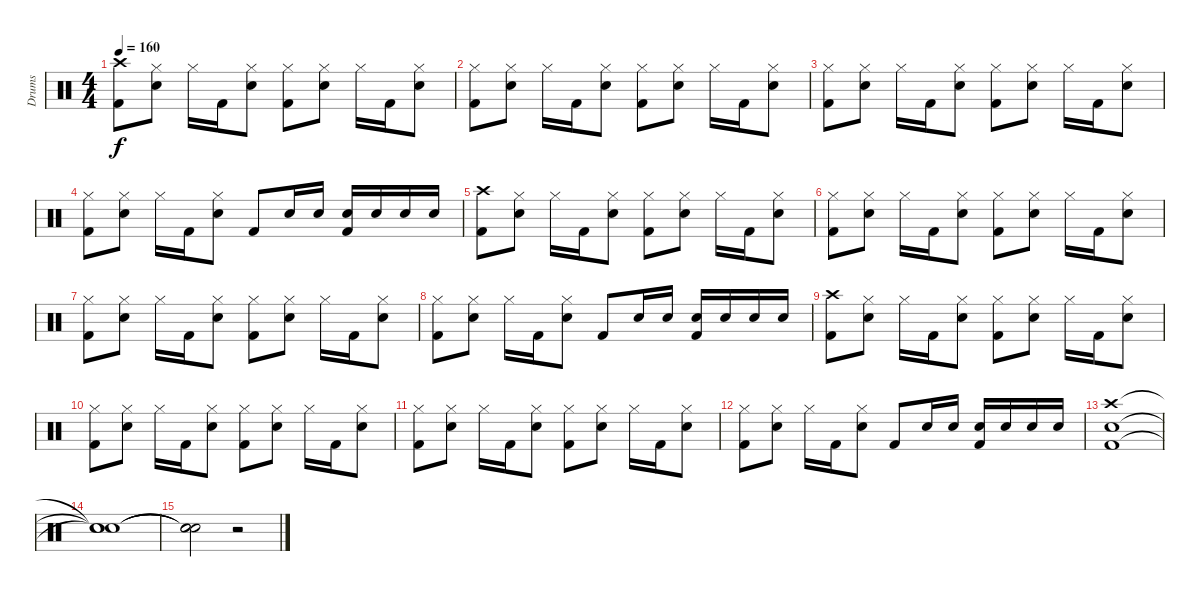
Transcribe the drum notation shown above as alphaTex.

\track ("Drums" "Drums") {instrument percussion}
\staff {score}
\articulation defaults
\ts (4 4)
\tempo 160
\clef neutral
\ks c
("Crash high (hit)" "Kick (hit) 2").8{dy f} ("Hi-Hat (closed)" "Snare (hit) 2").8 "Hi-Hat (closed)".16 "Kick (hit) 2".16 ("Hi-Hat (closed)" "Snare (hit) 2").8 ("Hi-Hat (closed)" "Kick (hit) 2").8 ("Hi-Hat (closed)" "Snare (hit) 2").8 "Hi-Hat (closed)".16 "Kick (hit) 2".16 ("Hi-Hat (closed)" "Snare (hit) 2").8 |
("Hi-Hat (closed)" "Kick (hit) 2").8 ("Hi-Hat (closed)" "Snare (hit) 2").8 "Hi-Hat (closed)".16 "Kick (hit) 2".16 ("Hi-Hat (closed)" "Snare (hit) 2").8 ("Hi-Hat (closed)" "Kick (hit) 2").8 ("Hi-Hat (closed)" "Snare (hit) 2").8 "Hi-Hat (closed)".16 "Kick (hit) 2".16 ("Hi-Hat (closed)" "Snare (hit) 2").8 |
("Hi-Hat (closed)" "Kick (hit) 2").8 ("Hi-Hat (closed)" "Snare (hit) 2").8 "Hi-Hat (closed)".16 "Kick (hit) 2".16 ("Hi-Hat (closed)" "Snare (hit) 2").8 ("Hi-Hat (closed)" "Kick (hit) 2").8 ("Hi-Hat (closed)" "Snare (hit) 2").8 "Hi-Hat (closed)".16 "Kick (hit) 2".16 ("Hi-Hat (closed)" "Snare (hit) 2").8 |
("Hi-Hat (closed)" "Kick (hit) 2").8 ("Hi-Hat (closed)" "Snare (hit) 2").8 "Hi-Hat (closed)".16 "Kick (hit) 2".16 ("Hi-Hat (closed)" "Snare (hit) 2").8 "Kick (hit) 2".8 "Snare (hit) 2".16 "Snare (hit) 2".16 ("Snare (hit) 2" "Kick (hit) 2").16 "Snare (hit) 2".16 "Snare (hit) 2".16 "Snare (hit) 2".16 |
("Crash high (hit)" "Kick (hit) 2").8 ("Hi-Hat (closed)" "Snare (hit) 2").8 "Hi-Hat (closed)".16 "Kick (hit) 2".16 ("Hi-Hat (closed)" "Snare (hit) 2").8 ("Hi-Hat (closed)" "Kick (hit) 2").8 ("Hi-Hat (closed)" "Snare (hit) 2").8 "Hi-Hat (closed)".16 "Kick (hit) 2".16 ("Hi-Hat (closed)" "Snare (hit) 2").8 |
("Hi-Hat (closed)" "Kick (hit) 2").8 ("Hi-Hat (closed)" "Snare (hit) 2").8 "Hi-Hat (closed)".16 "Kick (hit) 2".16 ("Hi-Hat (closed)" "Snare (hit) 2").8 ("Hi-Hat (closed)" "Kick (hit) 2").8 ("Hi-Hat (closed)" "Snare (hit) 2").8 "Hi-Hat (closed)".16 "Kick (hit) 2".16 ("Hi-Hat (closed)" "Snare (hit) 2").8 |
("Hi-Hat (closed)" "Kick (hit) 2").8 ("Hi-Hat (closed)" "Snare (hit) 2").8 "Hi-Hat (closed)".16 "Kick (hit) 2".16 ("Hi-Hat (closed)" "Snare (hit) 2").8 ("Hi-Hat (closed)" "Kick (hit) 2").8 ("Hi-Hat (closed)" "Snare (hit) 2").8 "Hi-Hat (closed)".16 "Kick (hit) 2".16 ("Hi-Hat (closed)" "Snare (hit) 2").8 |
("Hi-Hat (closed)" "Kick (hit) 2").8 ("Hi-Hat (closed)" "Snare (hit) 2").8 "Hi-Hat (closed)".16 "Kick (hit) 2".16 ("Hi-Hat (closed)" "Snare (hit) 2").8 "Kick (hit) 2".8 "Snare (hit) 2".16 "Snare (hit) 2".16 ("Snare (hit) 2" "Kick (hit) 2").16 "Snare (hit) 2".16 "Snare (hit) 2".16 "Snare (hit) 2".16 |
("Crash high (hit)" "Kick (hit) 2").8 ("Hi-Hat (closed)" "Snare (hit) 2").8 "Hi-Hat (closed)".16 "Kick (hit) 2".16 ("Hi-Hat (closed)" "Snare (hit) 2").8 ("Hi-Hat (closed)" "Kick (hit) 2").8 ("Hi-Hat (closed)" "Snare (hit) 2").8 "Hi-Hat (closed)".16 "Kick (hit) 2".16 ("Hi-Hat (closed)" "Snare (hit) 2").8 |
("Hi-Hat (closed)" "Kick (hit) 2").8 ("Hi-Hat (closed)" "Snare (hit) 2").8 "Hi-Hat (closed)".16 "Kick (hit) 2".16 ("Hi-Hat (closed)" "Snare (hit) 2").8 ("Hi-Hat (closed)" "Kick (hit) 2").8 ("Hi-Hat (closed)" "Snare (hit) 2").8 "Hi-Hat (closed)".16 "Kick (hit) 2".16 ("Hi-Hat (closed)" "Snare (hit) 2").8 |
("Hi-Hat (closed)" "Kick (hit) 2").8 ("Hi-Hat (closed)" "Snare (hit) 2").8 "Hi-Hat (closed)".16 "Kick (hit) 2".16 ("Hi-Hat (closed)" "Snare (hit) 2").8 ("Hi-Hat (closed)" "Kick (hit) 2").8 ("Hi-Hat (closed)" "Snare (hit) 2").8 "Hi-Hat (closed)".16 "Kick (hit) 2".16 ("Hi-Hat (closed)" "Snare (hit) 2").8 |
("Hi-Hat (closed)" "Kick (hit) 2").8 ("Hi-Hat (closed)" "Snare (hit) 2").8 "Hi-Hat (closed)".16 "Kick (hit) 2".16 ("Hi-Hat (closed)" "Snare (hit) 2").8 "Kick (hit) 2".8 "Snare (hit) 2".16 "Snare (hit) 2".16 ("Snare (hit) 2" "Kick (hit) 2").16 "Snare (hit) 2".16 "Snare (hit) 2".16 "Snare (hit) 2".16 |
("Crash high (hit)" "Snare (hit) 2" "Kick (hit) 2").1 |
("Snare (hit)"{t} "Snare (hit)"{t} "Snare (hit)"{t}).1 |
("Snare (hit)"{t} "Snare (hit)"{t} "Snare (hit)"{t}).2 r.2
